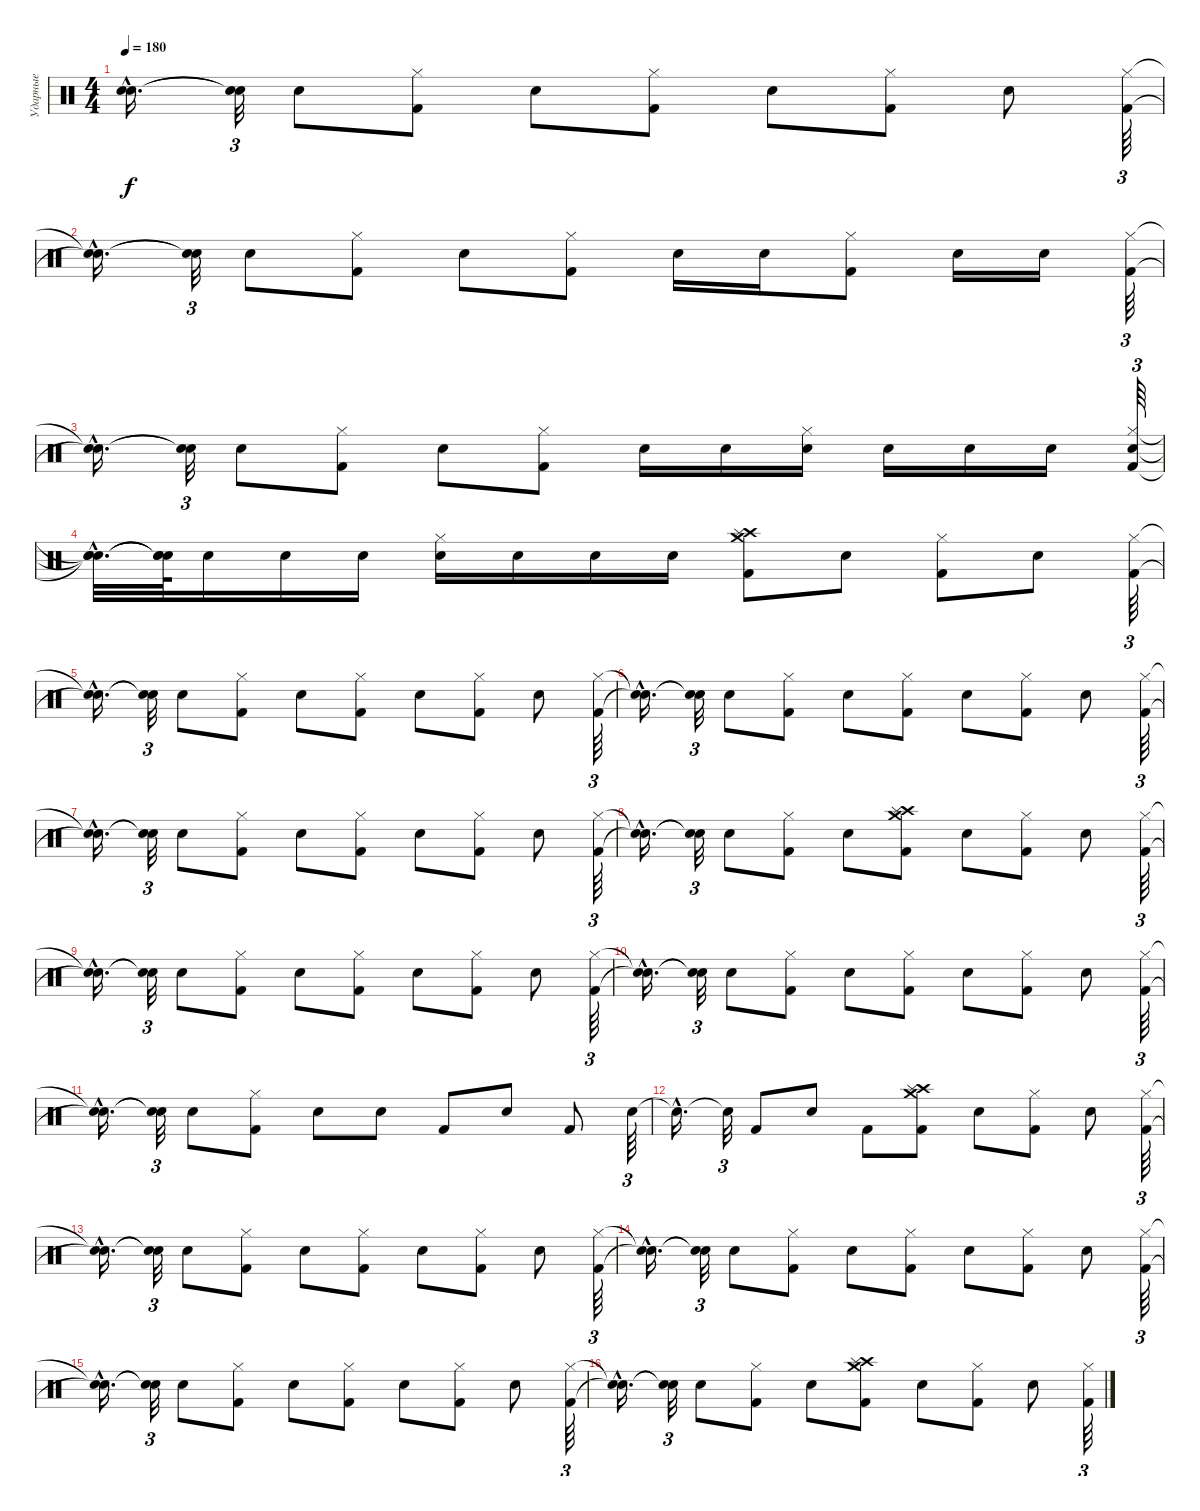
\track ("Ударные" "Ударные") {instrument percussion}
\staff {score}
\articulation defaults
\ts (4 4)
\tempo 180
\clef neutral
\ks c
("Snare (hit)"{hac t} "Snare (hit)"{hac t}).16{d dy f} ("Snare (hit)"{t} "Snare (hit)"{t}).32{tu (3 2)} "Snare (hit) 2".8 ("Hi-Hat (closed)" "Kick (hit) 2").8 "Snare (hit) 2".8 ("Hi-Hat (closed)" "Kick (hit) 2").8 "Snare (hit) 2".8 ("Hi-Hat (closed)" "Kick (hit) 2").8 "Snare (hit) 2".8 ("Hi-Hat (closed)" "Kick (hit) 2").64{tu (3 2)} |
("Snare (hit)"{hac t} "Snare (hit)"{hac t}).16{d} ("Snare (hit)"{t} "Snare (hit)"{t}).32{tu (3 2)} "Snare (hit) 2".8 ("Hi-Hat (closed)" "Kick (hit) 2").8 "Snare (hit) 2".8 ("Hi-Hat (closed)" "Kick (hit) 2").8 "Snare (hit) 2".16 "Snare (hit) 2".16 ("Hi-Hat (closed)" "Kick (hit) 2").8 "Snare (hit) 2".16 "Snare (hit) 2".16 ("Hi-Hat (closed)" "Kick (hit) 2").64{tu (3 2)} |
("Snare (hit)"{hac t} "Snare (hit)"{hac t}).16{d} ("Snare (hit)"{t} "Snare (hit)"{t}).32{tu (3 2)} "Snare (hit) 2".8 ("Hi-Hat (closed)" "Kick (hit) 2").8 "Snare (hit) 2".8 ("Hi-Hat (closed)" "Kick (hit) 2").8 "Snare (hit) 2".16 "Snare (hit) 2".16 ("Hi-Hat (closed)" "Snare (hit) 2").16 "Snare (hit) 2".16 "Snare (hit) 2".16 "Snare (hit) 2".16 ("Hi-Hat (closed)" "Snare (hit) 2" "Kick (hit) 2").64{tu (3 2)} |
("Snare (hit)"{hac t} "Snare (hit)"{hac t} "Snare (hit)"{hac t}).32{d} ("Snare (hit)"{t} "Snare (hit)"{t} "Snare (hit)"{t}).64 "Snare (hit) 2".16 "Snare (hit) 2".16 "Snare (hit) 2".16 ("Hi-Hat (closed)" "Snare (hit) 2").16 "Snare (hit) 2".16 "Snare (hit) 2".16 "Snare (hit) 2".16 ("Crash high (hit)" "Crash medium (hit)" "Splash (hit)" "Kick (hit) 2").8 "Snare (hit) 2".8 ("Hi-Hat (closed)" "Kick (hit) 2").8 "Snare (hit) 2".8 ("Hi-Hat (closed)" "Kick (hit) 2").64{tu (3 2)} |
("Snare (hit)"{hac t} "Snare (hit)"{hac t}).16{d} ("Snare (hit)"{t} "Snare (hit)"{t}).32{tu (3 2)} "Snare (hit) 2".8 ("Hi-Hat (closed)" "Kick (hit) 2").8 "Snare (hit) 2".8 ("Hi-Hat (closed)" "Kick (hit) 2").8 "Snare (hit) 2".8 ("Hi-Hat (closed)" "Kick (hit) 2").8 "Snare (hit) 2".8 ("Hi-Hat (closed)" "Kick (hit) 2").64{tu (3 2)} |
("Snare (hit)"{hac t} "Snare (hit)"{hac t}).16{d} ("Snare (hit)"{t} "Snare (hit)"{t}).32{tu (3 2)} "Snare (hit) 2".8 ("Hi-Hat (closed)" "Kick (hit) 2").8 "Snare (hit) 2".8 ("Hi-Hat (closed)" "Kick (hit) 2").8 "Snare (hit) 2".8 ("Hi-Hat (closed)" "Kick (hit) 2").8 "Snare (hit) 2".8 ("Hi-Hat (closed)" "Kick (hit) 2").64{tu (3 2)} |
("Snare (hit)"{hac t} "Snare (hit)"{hac t}).16{d} ("Snare (hit)"{t} "Snare (hit)"{t}).32{tu (3 2)} "Snare (hit) 2".8 ("Hi-Hat (closed)" "Kick (hit) 2").8 "Snare (hit) 2".8 ("Hi-Hat (closed)" "Kick (hit) 2").8 "Snare (hit) 2".8 ("Hi-Hat (closed)" "Kick (hit) 2").8 "Snare (hit) 2".8 ("Hi-Hat (closed)" "Kick (hit) 2").64{tu (3 2)} |
("Snare (hit)"{hac t} "Snare (hit)"{hac t}).16{d} ("Snare (hit)"{t} "Snare (hit)"{t}).32{tu (3 2)} "Snare (hit) 2".8 ("Hi-Hat (closed)" "Kick (hit) 2").8 "Snare (hit) 2".8 ("Crash high (hit)" "Crash medium (hit)" "Splash (hit)" "Kick (hit) 2").8 "Snare (hit) 2".8 ("Hi-Hat (closed)" "Kick (hit) 2").8 "Snare (hit) 2".8 ("Hi-Hat (closed)" "Kick (hit) 2").64{tu (3 2)} |
("Snare (hit)"{hac t} "Snare (hit)"{hac t}).16{d} ("Snare (hit)"{t} "Snare (hit)"{t}).32{tu (3 2)} "Snare (hit) 2".8 ("Hi-Hat (closed)" "Kick (hit) 2").8 "Snare (hit) 2".8 ("Hi-Hat (closed)" "Kick (hit) 2").8 "Snare (hit) 2".8 ("Hi-Hat (closed)" "Kick (hit) 2").8 "Snare (hit) 2".8 ("Hi-Hat (closed)" "Kick (hit) 2").64{tu (3 2)} |
("Snare (hit)"{hac t} "Snare (hit)"{hac t}).16{d} ("Snare (hit)"{t} "Snare (hit)"{t}).32{tu (3 2)} "Snare (hit) 2".8 ("Hi-Hat (closed)" "Kick (hit) 2").8 "Snare (hit) 2".8 ("Hi-Hat (closed)" "Kick (hit) 2").8 "Snare (hit) 2".8 ("Hi-Hat (closed)" "Kick (hit) 2").8 "Snare (hit) 2".8 ("Hi-Hat (closed)" "Kick (hit) 2").64{tu (3 2)} |
("Snare (hit)"{hac t} "Snare (hit)"{hac t}).16{d} ("Snare (hit)"{t} "Snare (hit)"{t}).32{tu (3 2)} "Snare (hit) 2".8 ("Hi-Hat (closed)" "Kick (hit) 2").8 "Snare (hit) 2".8 "Snare (hit) 2".8 "Kick (hit) 2".8 "Snare (hit) 2".8 "Kick (hit) 2".8 "Snare (hit) 2".64{tu (3 2)} |
"Snare (hit)"{hac t}.16{d} "Snare (hit)"{t}.32{tu (3 2)} "Kick (hit) 2".8 "Snare (hit) 2".8 "Kick (hit) 2".8 ("Crash high (hit)" "Crash medium (hit)" "Splash (hit)" "Kick (hit) 2").8 "Snare (hit) 2".8 ("Hi-Hat (closed)" "Kick (hit) 2").8 "Snare (hit) 2".8 ("Hi-Hat (closed)" "Kick (hit) 2").64{tu (3 2)} |
("Snare (hit)"{hac t} "Snare (hit)"{hac t}).16{d} ("Snare (hit)"{t} "Snare (hit)"{t}).32{tu (3 2)} "Snare (hit) 2".8 ("Hi-Hat (closed)" "Kick (hit) 2").8 "Snare (hit) 2".8 ("Hi-Hat (closed)" "Kick (hit) 2").8 "Snare (hit) 2".8 ("Hi-Hat (closed)" "Kick (hit) 2").8 "Snare (hit) 2".8 ("Hi-Hat (closed)" "Kick (hit) 2").64{tu (3 2)} |
("Snare (hit)"{hac t} "Snare (hit)"{hac t}).16{d} ("Snare (hit)"{t} "Snare (hit)"{t}).32{tu (3 2)} "Snare (hit) 2".8 ("Hi-Hat (closed)" "Kick (hit) 2").8 "Snare (hit) 2".8 ("Hi-Hat (closed)" "Kick (hit) 2").8 "Snare (hit) 2".8 ("Hi-Hat (closed)" "Kick (hit) 2").8 "Snare (hit) 2".8 ("Hi-Hat (closed)" "Kick (hit) 2").64{tu (3 2)} |
("Snare (hit)"{hac t} "Snare (hit)"{hac t}).16{d} ("Snare (hit)"{t} "Snare (hit)"{t}).32{tu (3 2)} "Snare (hit) 2".8 ("Hi-Hat (closed)" "Kick (hit) 2").8 "Snare (hit) 2".8 ("Hi-Hat (closed)" "Kick (hit) 2").8 "Snare (hit) 2".8 ("Hi-Hat (closed)" "Kick (hit) 2").8 "Snare (hit) 2".8 ("Hi-Hat (closed)" "Kick (hit) 2").64{tu (3 2)} |
("Snare (hit)"{hac t} "Snare (hit)"{hac t}).16{d} ("Snare (hit)"{t} "Snare (hit)"{t}).32{tu (3 2)} "Snare (hit) 2".8 ("Hi-Hat (closed)" "Kick (hit) 2").8 "Snare (hit) 2".8 ("Crash high (hit)" "Crash medium (hit)" "Splash (hit)" "Kick (hit) 2").8 "Snare (hit) 2".8 ("Hi-Hat (closed)" "Kick (hit) 2").8 "Snare (hit) 2".8 ("Hi-Hat (closed)" "Kick (hit) 2").64{tu (3 2)}
